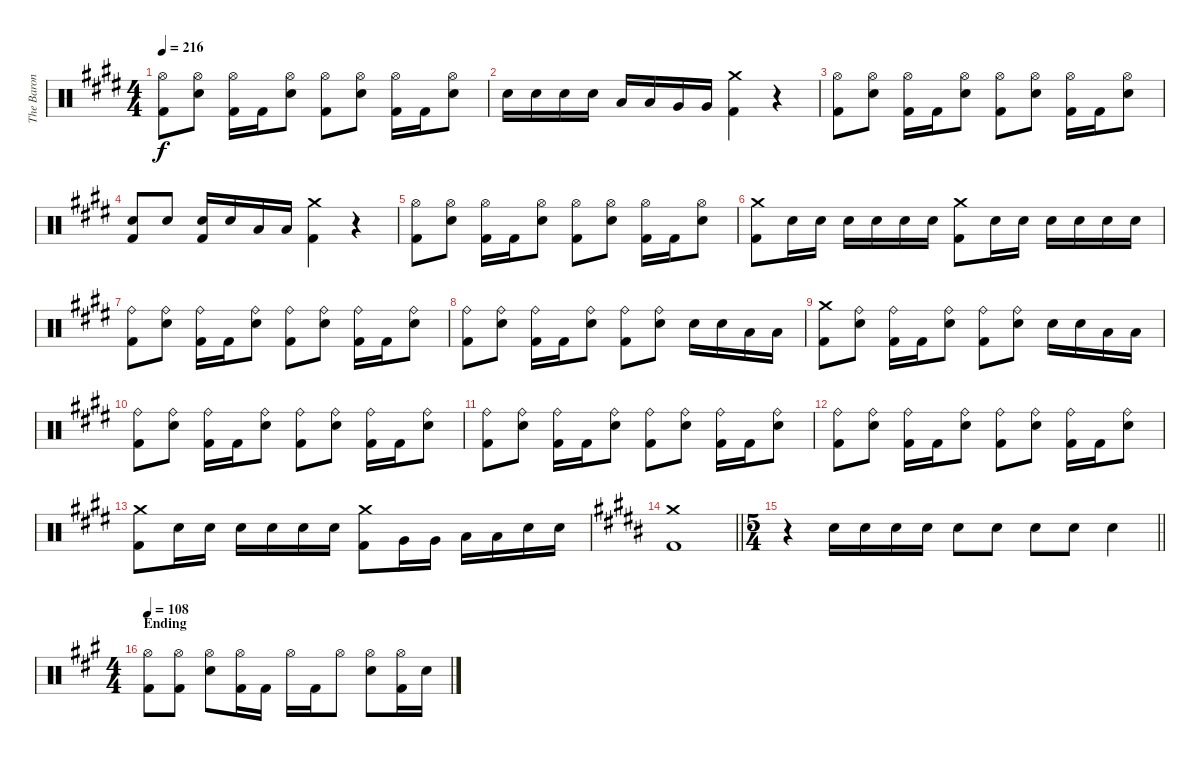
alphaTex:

\track ("The Baron Von Tito" "The Baron ") {instrument percussion}
\staff {score}
\articulation defaults
\ts (4 4)
\tempo 216
\clef neutral
\ks e
("Hi-Hat (open)" "Kick (hit) 2").8{dy f} ("Hi-Hat (open)" "Electric Snare (hit)").8 ("Hi-Hat (open)" "Kick (hit) 2").16 "Kick (hit) 2".16 ("Hi-Hat (open)" "Electric Snare (hit)").8 ("Hi-Hat (open)" "Kick (hit) 2").8 ("Hi-Hat (open)" "Electric Snare (hit)").8 ("Hi-Hat (open)" "Kick (hit) 2").16 "Kick (hit) 2".16 ("Hi-Hat (open)" "Electric Snare (hit)").8 |
"Electric Snare (hit)".16 "Electric Snare (hit)".16 "Electric Snare (hit)".16 "Electric Snare (hit)".16 "Low Tom (hit)".16 "Low Tom (hit)".16 "Very Low Tom (hit)".16 "Very Low Tom (hit)".16 ("Crash medium (hit)" "Kick (hit) 2").4 r.4 |
("Hi-Hat (open)" "Kick (hit) 2").8 ("Hi-Hat (open)" "Electric Snare (hit)").8 ("Hi-Hat (open)" "Kick (hit) 2").16 "Kick (hit) 2".16 ("Hi-Hat (open)" "Electric Snare (hit)").8 ("Hi-Hat (open)" "Kick (hit) 2").8 ("Hi-Hat (open)" "Electric Snare (hit)").8 ("Hi-Hat (open)" "Kick (hit) 2").16 "Kick (hit) 2".16 ("Hi-Hat (open)" "Electric Snare (hit)").8 |
("Electric Snare (hit)" "Kick (hit) 2").8 "Electric Snare (hit)".8 ("Electric Snare (hit)" "Kick (hit) 2").16 "Electric Snare (hit)".16 "Low Tom (hit)".16 "Low Tom (hit)".16 ("Crash medium (hit)" "Kick (hit) 2").4 r.4 |
("Hi-Hat (open)" "Kick (hit) 2").8 ("Hi-Hat (open)" "Electric Snare (hit)").8 ("Hi-Hat (open)" "Kick (hit) 2").16 "Kick (hit) 2".16 ("Hi-Hat (open)" "Electric Snare (hit)").8 ("Hi-Hat (open)" "Kick (hit) 2").8 ("Hi-Hat (open)" "Electric Snare (hit)").8 ("Hi-Hat (open)" "Kick (hit) 2").16 "Kick (hit) 2".16 ("Hi-Hat (open)" "Electric Snare (hit)").8 |
("Crash medium (hit)" "Kick (hit) 2").8 "Electric Snare (hit)".16 "Electric Snare (hit)".16 "Electric Snare (hit)".16 "Electric Snare (hit)".16 "Electric Snare (hit)".16 "Electric Snare (hit)".16 ("Crash medium (hit)" "Kick (hit) 2").8 "Electric Snare (hit)".16 "Electric Snare (hit)".16 "Electric Snare (hit)".16 "Electric Snare (hit)".16 "Electric Snare (hit)".16 "Electric Snare (hit)".16 |
("Ride (bell)" "Kick (hit) 2").8 ("Ride (bell)" "Electric Snare (hit)").8 ("Ride (bell)" "Kick (hit) 2").16 "Kick (hit) 2".16 ("Ride (bell)" "Electric Snare (hit)").8 ("Ride (bell)" "Kick (hit) 2").8 ("Ride (bell)" "Electric Snare (hit)").8 ("Ride (bell)" "Kick (hit) 2").16 "Kick (hit) 2".16 ("Ride (bell)" "Electric Snare (hit)").8 |
("Ride (bell)" "Kick (hit) 2").8 ("Ride (bell)" "Electric Snare (hit)").8 ("Ride (bell)" "Kick (hit) 2").16 "Kick (hit) 2".16 ("Ride (bell)" "Electric Snare (hit)").8 ("Ride (bell)" "Kick (hit) 2").8 ("Ride (bell)" "Electric Snare (hit)").8 "Electric Snare (hit)".16 "Electric Snare (hit)".16 "Low Tom (hit)".16 "Low Tom (hit)".16 |
("Crash medium (hit)" "Kick (hit) 2").8 ("Ride (bell)" "Electric Snare (hit)").8 ("Ride (bell)" "Kick (hit) 2").16 "Kick (hit) 2".16 ("Ride (bell)" "Electric Snare (hit)").8 ("Ride (bell)" "Kick (hit) 2").8 ("Ride (bell)" "Electric Snare (hit)").8 "Electric Snare (hit)".16 "Electric Snare (hit)".16 "Low Tom (hit)".16 "Low Tom (hit)".16 |
("Ride (bell)" "Kick (hit) 2").8 ("Ride (bell)" "Electric Snare (hit)").8 ("Ride (bell)" "Kick (hit) 2").16 "Kick (hit) 2".16 ("Ride (bell)" "Electric Snare (hit)").8 ("Ride (bell)" "Kick (hit) 2").8 ("Ride (bell)" "Electric Snare (hit)").8 ("Ride (bell)" "Kick (hit) 2").16 "Kick (hit) 2".16 ("Ride (bell)" "Electric Snare (hit)").8 |
("Ride (bell)" "Kick (hit) 2").8 ("Ride (bell)" "Electric Snare (hit)").8 ("Ride (bell)" "Kick (hit) 2").16 "Kick (hit) 2".16 ("Ride (bell)" "Electric Snare (hit)").8 ("Ride (bell)" "Kick (hit) 2").8 ("Ride (bell)" "Electric Snare (hit)").8 ("Ride (bell)" "Kick (hit) 2").16 "Kick (hit) 2".16 ("Ride (bell)" "Electric Snare (hit)").8 |
("Ride (bell)" "Kick (hit) 2").8 ("Ride (bell)" "Electric Snare (hit)").8 ("Ride (bell)" "Kick (hit) 2").16 "Kick (hit) 2".16 ("Ride (bell)" "Electric Snare (hit)").8 ("Ride (bell)" "Kick (hit) 2").8 ("Ride (bell)" "Electric Snare (hit)").8 ("Ride (bell)" "Kick (hit) 2").16 "Kick (hit) 2".16 ("Ride (bell)" "Electric Snare (hit)").8 |
("Crash medium (hit)" "Kick (hit) 2").8 "Electric Snare (hit)".16 "Electric Snare (hit)".16 "Electric Snare (hit)".16 "Electric Snare (hit)".16 "Electric Snare (hit)".16 "Electric Snare (hit)".16 ("Crash medium (hit)" "Kick (hit) 2").8 "Very Low Tom (hit)".16 "Very Low Tom (hit)".16 "Low Tom (hit)".16 "Low Tom (hit)".16 "Electric Snare (hit)".16 "Electric Snare (hit)".16 |
\barLineRight lightlight
\ks b
("Crash medium (hit)" "Kick (hit) 2").1 |
\ts (5 4)
\barLineRight lightlight
r.4 "Electric Snare (hit)".16 "Electric Snare (hit)".16 "Electric Snare (hit)".16 "Electric Snare (hit)".16 "Electric Snare (hit)".8 "Electric Snare (hit)".8 "Electric Snare (hit)".8 "Electric Snare (hit)".8 "Electric Snare (hit)".4 |
\ts (4 4)
\section ("" "Ending")
\tempo 108
\ks a
("Hi-Hat (open)" "Kick (hit) 2").8 ("Hi-Hat (open)" "Kick (hit) 2").8 ("Hi-Hat (open)" "Electric Snare (hit)").8 ("Hi-Hat (open)" "Kick (hit) 2").16 "Kick (hit) 2".16 "Hi-Hat (open)".16 "Kick (hit) 2".16 "Hi-Hat (open)".8 ("Hi-Hat (open)" "Electric Snare (hit)").8 ("Hi-Hat (open)" "Kick (hit) 2").16 "Electric Snare (hit)".16
